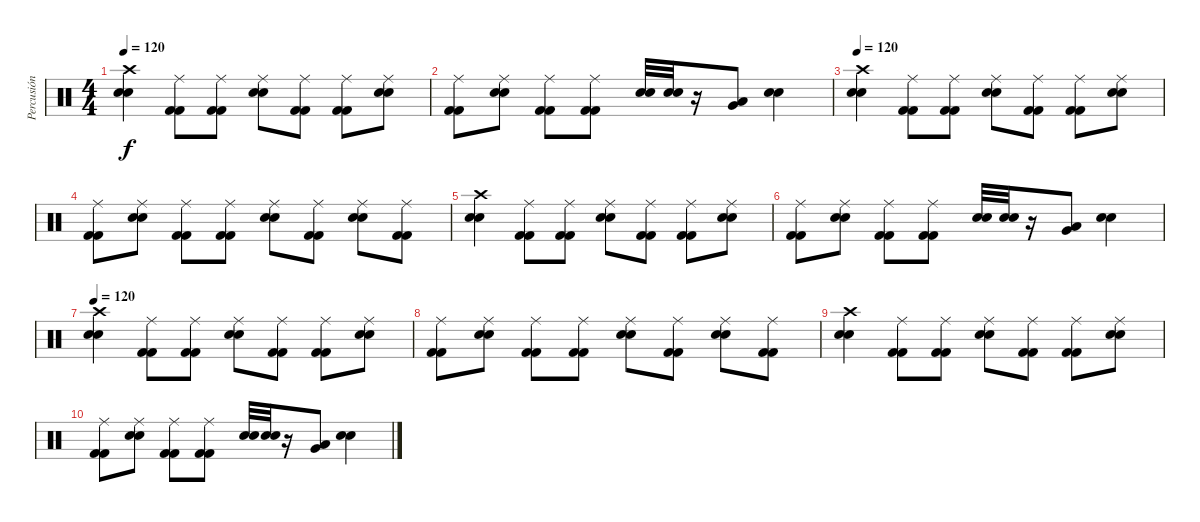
\track ("Percusión" "Percusión") {instrument percussion}
\staff {score}
\articulation defaults
\ts (4 4)
\tempo 120
\clef neutral
\ks c
("Crash high (hit)" "Snare (hit) 2" "Snare (hit) 2").4{dy f} ("Ride (middle)" "Kick (hit) 2" "Kick (hit) 2").8 ("Ride (middle)" "Kick (hit) 2" "Kick (hit) 2").8 ("Ride (middle)" "Snare (hit) 2" "Snare (hit) 2").8 ("Ride (middle)" "Kick (hit) 2" "Kick (hit) 2").8 ("Ride (middle)" "Kick (hit) 2" "Kick (hit) 2").8 ("Ride (middle)" "Snare (hit) 2" "Snare (hit) 2").8 |
("Ride (middle)" "Kick (hit) 2" "Kick (hit) 2").8 ("Ride (middle)" "Snare (hit) 2" "Snare (hit) 2").8 ("Ride (middle)" "Kick (hit) 2" "Kick (hit) 2").8 ("Ride (middle)" "Kick (hit) 2" "Kick (hit) 2").8 ("Electric Snare (hit)" "Electric Snare (hit)").32 ("Electric Snare (hit)" "Electric Snare (hit)").32 r.16 ("Very Low Tom (hit)" "Low Floor Tom (hit)").8 ("Snare (hit) 2" "Snare (hit) 2").4 |
\tempo 120
("Crash high (hit)" "Snare (hit) 2" "Snare (hit) 2").4 ("Ride (middle)" "Kick (hit) 2" "Kick (hit) 2").8 ("Ride (middle)" "Kick (hit) 2" "Kick (hit) 2").8 ("Ride (middle)" "Snare (hit) 2" "Snare (hit) 2").8 ("Ride (middle)" "Kick (hit) 2" "Kick (hit) 2").8 ("Ride (middle)" "Kick (hit) 2" "Kick (hit) 2").8 ("Ride (middle)" "Snare (hit) 2" "Snare (hit) 2").8 |
("Ride (middle)" "Kick (hit) 2" "Kick (hit) 2").8 ("Ride (middle)" "Snare (hit) 2" "Snare (hit) 2").8 ("Ride (middle)" "Kick (hit) 2" "Kick (hit) 2").8 ("Ride (middle)" "Kick (hit) 2" "Kick (hit) 2").8 ("Ride (middle)" "Snare (hit) 2" "Snare (hit) 2").8 ("Ride (middle)" "Kick (hit) 2" "Kick (hit) 2").8 ("Ride (middle)" "Snare (hit) 2" "Snare (hit) 2").8 ("Ride (middle)" "Kick (hit) 2" "Kick (hit) 2").8 |
("Crash high (hit)" "Snare (hit) 2" "Snare (hit) 2").4 ("Ride (middle)" "Kick (hit) 2" "Kick (hit) 2").8 ("Ride (middle)" "Kick (hit) 2" "Kick (hit) 2").8 ("Ride (middle)" "Snare (hit) 2" "Snare (hit) 2").8 ("Ride (middle)" "Kick (hit) 2" "Kick (hit) 2").8 ("Ride (middle)" "Kick (hit) 2" "Kick (hit) 2").8 ("Ride (middle)" "Snare (hit) 2" "Snare (hit) 2").8 |
("Ride (middle)" "Kick (hit) 2" "Kick (hit) 2").8 ("Ride (middle)" "Snare (hit) 2" "Snare (hit) 2").8 ("Ride (middle)" "Kick (hit) 2" "Kick (hit) 2").8 ("Ride (middle)" "Kick (hit) 2" "Kick (hit) 2").8 ("Electric Snare (hit)" "Electric Snare (hit)").32 ("Electric Snare (hit)" "Electric Snare (hit)").32 r.16 ("Very Low Tom (hit)" "Low Floor Tom (hit)").8 ("Snare (hit) 2" "Snare (hit) 2").4 |
\tempo 120
("Crash high (hit)" "Snare (hit) 2" "Snare (hit) 2").4 ("Ride (middle)" "Kick (hit) 2" "Kick (hit) 2").8 ("Ride (middle)" "Kick (hit) 2" "Kick (hit) 2").8 ("Ride (middle)" "Snare (hit) 2" "Snare (hit) 2").8 ("Ride (middle)" "Kick (hit) 2" "Kick (hit) 2").8 ("Ride (middle)" "Kick (hit) 2" "Kick (hit) 2").8 ("Ride (middle)" "Snare (hit) 2" "Snare (hit) 2").8 |
("Ride (middle)" "Kick (hit) 2" "Kick (hit) 2").8 ("Ride (middle)" "Snare (hit) 2" "Snare (hit) 2").8 ("Ride (middle)" "Kick (hit) 2" "Kick (hit) 2").8 ("Ride (middle)" "Kick (hit) 2" "Kick (hit) 2").8 ("Ride (middle)" "Snare (hit) 2" "Snare (hit) 2").8 ("Ride (middle)" "Kick (hit) 2" "Kick (hit) 2").8 ("Ride (middle)" "Snare (hit) 2" "Snare (hit) 2").8 ("Ride (middle)" "Kick (hit) 2" "Kick (hit) 2").8 |
("Crash high (hit)" "Snare (hit) 2" "Snare (hit) 2").4 ("Ride (middle)" "Kick (hit) 2" "Kick (hit) 2").8 ("Ride (middle)" "Kick (hit) 2" "Kick (hit) 2").8 ("Ride (middle)" "Snare (hit) 2" "Snare (hit) 2").8 ("Ride (middle)" "Kick (hit) 2" "Kick (hit) 2").8 ("Ride (middle)" "Kick (hit) 2" "Kick (hit) 2").8 ("Ride (middle)" "Snare (hit) 2" "Snare (hit) 2").8 |
("Ride (middle)" "Kick (hit) 2" "Kick (hit) 2").8 ("Ride (middle)" "Snare (hit) 2" "Snare (hit) 2").8 ("Ride (middle)" "Kick (hit) 2" "Kick (hit) 2").8 ("Ride (middle)" "Kick (hit) 2" "Kick (hit) 2").8 ("Electric Snare (hit)" "Electric Snare (hit)").32 ("Electric Snare (hit)" "Electric Snare (hit)").32 r.16 ("Very Low Tom (hit)" "Low Floor Tom (hit)").8 ("Snare (hit) 2" "Snare (hit) 2").4
